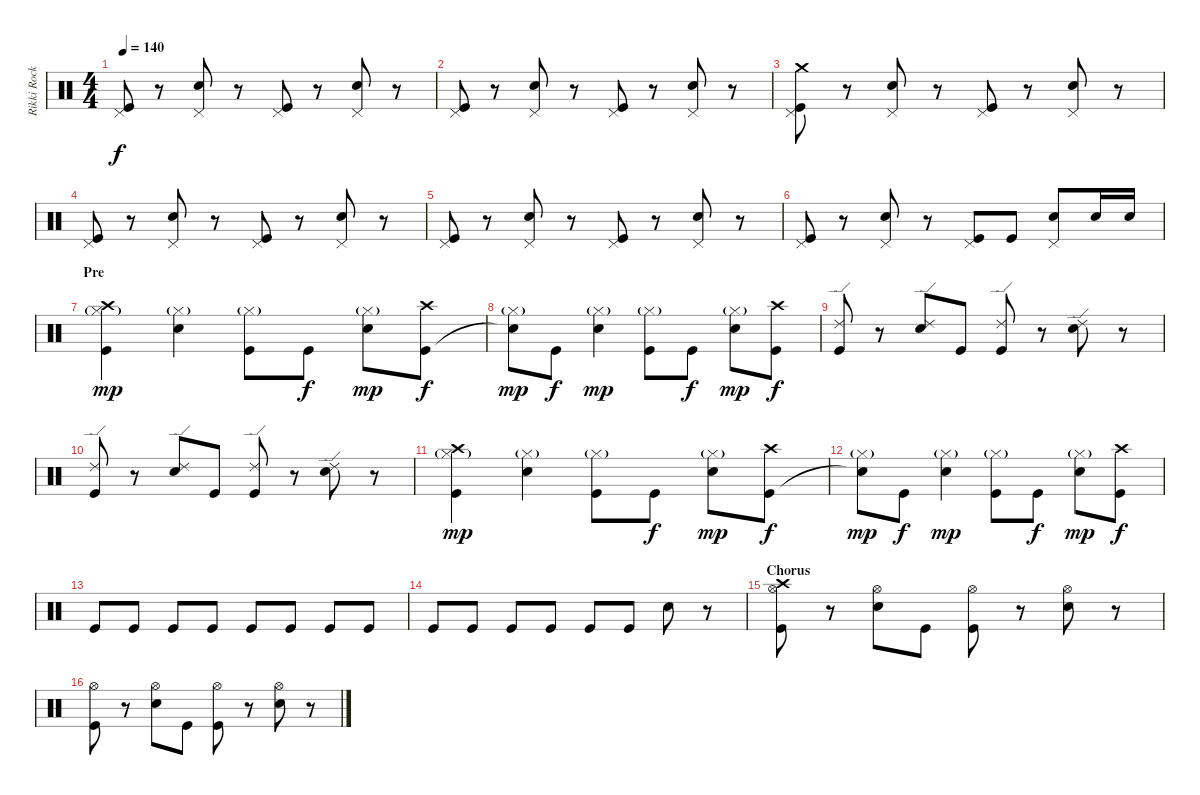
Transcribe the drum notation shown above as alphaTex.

\track ("Rikki Rockett - Drums" "Rikki Rock") {instrument percussion}
\staff {score}
\articulation defaults
\ts (4 4)
\tempo 140
\clef neutral
\ks c
("Pedal Hi-Hat (hit)" "Kick (hit)").8{dy f} r.8 ("Pedal Hi-Hat (hit)" "Snare (hit) 2").8 r.8 ("Pedal Hi-Hat (hit)" "Kick (hit)").8 r.8 ("Pedal Hi-Hat (hit)" "Snare (hit) 2").8 r.8 |
("Pedal Hi-Hat (hit)" "Kick (hit)").8 r.8 ("Pedal Hi-Hat (hit)" "Snare (hit) 2").8 r.8 ("Pedal Hi-Hat (hit)" "Kick (hit)").8 r.8 ("Pedal Hi-Hat (hit)" "Snare (hit) 2").8 r.8 |
("Pedal Hi-Hat (hit)" "Crash medium (hit)" "Kick (hit)").8 r.8 ("Pedal Hi-Hat (hit)" "Snare (hit) 2").8 r.8 ("Pedal Hi-Hat (hit)" "Kick (hit)").8 r.8 ("Pedal Hi-Hat (hit)" "Snare (hit) 2").8 r.8 |
("Pedal Hi-Hat (hit)" "Kick (hit)").8 r.8 ("Pedal Hi-Hat (hit)" "Snare (hit) 2").8 r.8 ("Pedal Hi-Hat (hit)" "Kick (hit)").8 r.8 ("Pedal Hi-Hat (hit)" "Snare (hit) 2").8 r.8 |
("Pedal Hi-Hat (hit)" "Kick (hit)").8 r.8 ("Pedal Hi-Hat (hit)" "Snare (hit) 2").8 r.8 ("Pedal Hi-Hat (hit)" "Kick (hit)").8 r.8 ("Pedal Hi-Hat (hit)" "Snare (hit) 2").8 r.8 |
("Pedal Hi-Hat (hit)" "Kick (hit)").8 r.8 ("Pedal Hi-Hat (hit)" "Snare (hit) 2").8 r.8 ("Pedal Hi-Hat (hit)" "Kick (hit)").8 "Kick (hit)".8 ("Pedal Hi-Hat (hit)" "Snare (hit) 2").8 "Snare (hit) 2".16 "Snare (hit) 2".16 |
\section ("" "Pre")
("Hi-Hat (closed)"{g} "Crash high (hit)" "Kick (hit)").4{dy mp} ("Hi-Hat (closed)"{g} "Snare (hit) 2").4 ("Hi-Hat (closed)"{g} "Kick (hit)").8 "Kick (hit)".8{dy f} ("Hi-Hat (closed)"{g} "Snare (hit) 2").8{dy mp} ("Crash high (hit)" "Kick (hit)").8{dy f} |
("Hi-Hat (closed)"{g} "Snare (hit)"{t}).8{dy mp} "Kick (hit)".8{dy f} ("Hi-Hat (closed)"{g} "Snare (hit) 2").4{dy mp} ("Hi-Hat (closed)"{g} "Kick (hit)").8 "Kick (hit)".8{dy f} ("Hi-Hat (closed)"{g} "Snare (hit) 2").8{dy mp} ("Crash high (hit)" "Kick (hit)").8{dy f} |
("Ride (edge) 2" "Kick (hit)").8 r.8 ("Ride (edge) 2" "Snare (hit) 2").8 "Kick (hit)".8 ("Ride (edge) 2" "Kick (hit)").8 r.8 ("Ride (edge) 2" "Snare (hit) 2").8 r.8 |
("Ride (edge) 2" "Kick (hit)").8 r.8 ("Ride (edge) 2" "Snare (hit) 2").8 "Kick (hit)".8 ("Ride (edge) 2" "Kick (hit)").8 r.8 ("Ride (edge) 2" "Snare (hit) 2").8 r.8 |
("Hi-Hat (closed)"{g} "Crash high (hit)" "Kick (hit)").4{dy mp} ("Hi-Hat (closed)"{g} "Snare (hit) 2").4 ("Hi-Hat (closed)"{g} "Kick (hit)").8 "Kick (hit)".8{dy f} ("Hi-Hat (closed)"{g} "Snare (hit) 2").8{dy mp} ("Crash high (hit)" "Kick (hit)").8{dy f} |
("Hi-Hat (closed)"{g} "Snare (hit)"{t}).8{dy mp} "Kick (hit)".8{dy f} ("Hi-Hat (closed)"{g} "Snare (hit) 2").4{dy mp} ("Hi-Hat (closed)"{g} "Kick (hit)").8 "Kick (hit)".8{dy f} ("Hi-Hat (closed)"{g} "Snare (hit) 2").8{dy mp} ("Crash high (hit)" "Kick (hit)").8{dy f} |
"Kick (hit)".8 "Kick (hit)".8 "Kick (hit)".8 "Kick (hit)".8 "Kick (hit)".8 "Kick (hit)".8 "Kick (hit)".8 "Kick (hit)".8 |
"Kick (hit)".8 "Kick (hit)".8 "Kick (hit)".8 "Kick (hit)".8 "Kick (hit)".8 "Kick (hit)".8 "Snare (hit) 2".8 r.8 |
\section ("" "Chorus")
("Hi-Hat (open)" "Crash high (hit)" "Kick (hit)").8 r.8 ("Hi-Hat (open)" "Snare (hit) 2").8 "Kick (hit)".8 ("Hi-Hat (open)" "Kick (hit)").8 r.8 ("Hi-Hat (open)" "Snare (hit) 2").8 r.8 |
("Hi-Hat (open)" "Kick (hit)").8 r.8 ("Hi-Hat (open)" "Snare (hit) 2").8 "Kick (hit)".8 ("Hi-Hat (open)" "Kick (hit)").8 r.8 ("Hi-Hat (open)" "Snare (hit) 2").8 r.8
